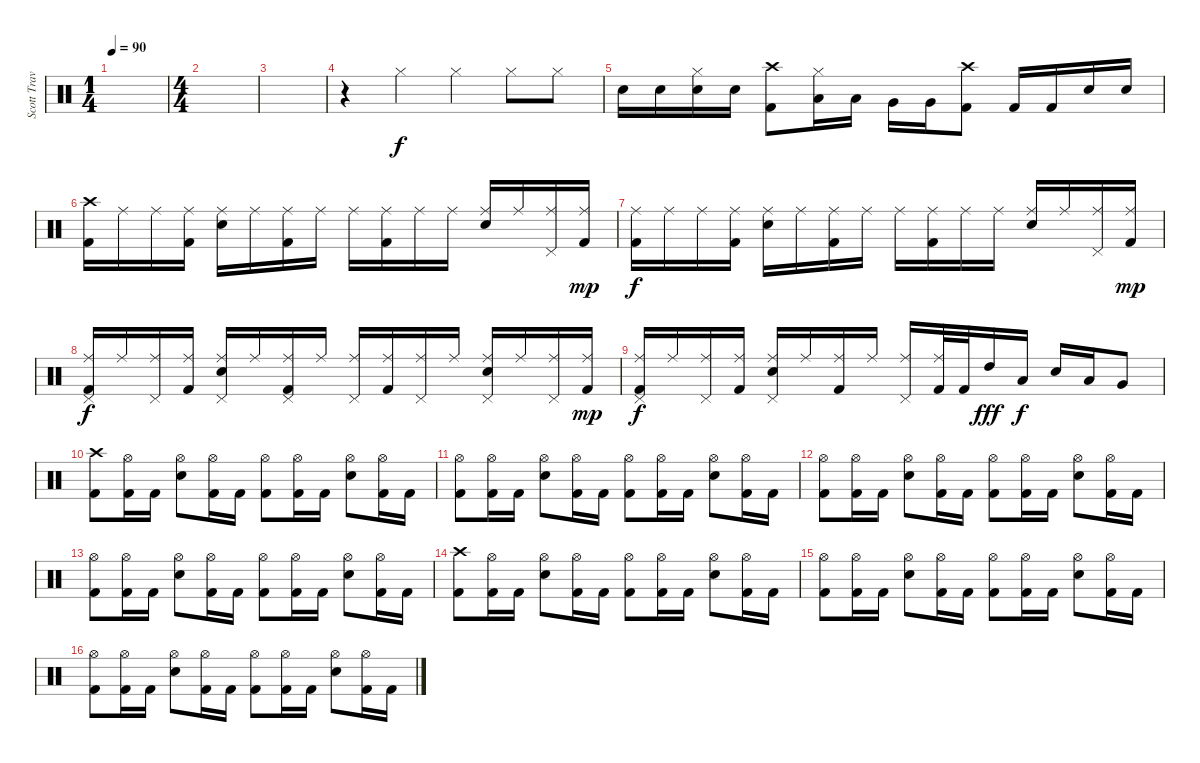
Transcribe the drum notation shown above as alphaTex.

\track ("Scott Travis" "Scott Trav") {instrument percussion}
\staff {score}
\articulation defaults
\ts (1 4)
\tempo 90
\clef neutral
\ks c
|
\ts (4 4)
|
|
r.4 "Hi-Hat (closed)".4 "Hi-Hat (closed)".4 "Hi-Hat (closed)".8 "Hi-Hat (closed)".8 |
"Electric Snare (hit)".16 "Electric Snare (hit)".16 ("Electric Snare (hit)" "Hi-Hat (closed)").16 "Electric Snare (hit)".16 ("Kick (hit) 2" "Crash high (hit)").8 ("Low Tom (hit)" "Hi-Hat (closed)").16 "Low Tom (hit)".16 "Very Low Tom (hit)".16 "Very Low Tom (hit)".16 ("Kick (hit) 2" "Crash high (hit)").8 "Kick (hit) 2".16 "Kick (hit) 2".16 "Electric Snare (hit)".16 "Electric Snare (hit)".16 |
("Kick (hit) 2" "Crash high (hit)").16 "Ride (middle)".16 "Ride (middle)".16 ("Ride (middle)" "Kick (hit) 2").16 ("Ride (middle)" "Electric Snare (hit)").16 "Ride (middle)".16 ("Ride (middle)" "Kick (hit) 2").16 "Ride (middle)".16 "Ride (middle)".16 ("Ride (middle)" "Kick (hit) 2").16 "Ride (middle)".16 "Ride (middle)".16 ("Ride (middle)" "Electric Snare (hit)").16 "Ride (middle)".16 ("Ride (middle)" "Pedal Hi-Hat (hit)").16 ("Ride (middle)" "Kick (hit) 2").16{dy mp} |
("Kick (hit) 2" "Ride (middle)").16{dy f} "Ride (middle)".16 "Ride (middle)".16 ("Ride (middle)" "Kick (hit) 2").16 ("Ride (middle)" "Electric Snare (hit)").16 "Ride (middle)".16 ("Ride (middle)" "Kick (hit) 2").16 "Ride (middle)".16 "Ride (middle)".16 ("Ride (middle)" "Kick (hit) 2").16 "Ride (middle)".16 "Ride (middle)".16 ("Ride (middle)" "Electric Snare (hit)").16 "Ride (middle)".16 ("Ride (middle)" "Pedal Hi-Hat (hit)").16 ("Ride (middle)" "Kick (hit) 2").16{dy mp} |
("Kick (hit) 2" "Ride (middle)" "Pedal Hi-Hat (hit)").16{dy f} "Ride (middle)".16 ("Ride (middle)" "Pedal Hi-Hat (hit)").16 ("Ride (middle)" "Kick (hit) 2").16 ("Ride (middle)" "Electric Snare (hit)" "Pedal Hi-Hat (hit)").16 "Ride (middle)".16 ("Ride (middle)" "Kick (hit) 2" "Pedal Hi-Hat (hit)").16 "Ride (middle)".16 ("Ride (middle)" "Pedal Hi-Hat (hit)").16 ("Ride (middle)" "Kick (hit) 2").16 ("Ride (middle)" "Pedal Hi-Hat (hit)").16 "Ride (middle)".16 ("Ride (middle)" "Electric Snare (hit)" "Pedal Hi-Hat (hit)").16 "Ride (middle)".16 ("Ride (middle)" "Pedal Hi-Hat (hit)").16 ("Ride (middle)" "Kick (hit) 2").16{dy mp} |
("Kick (hit) 2" "Ride (middle)" "Pedal Hi-Hat (hit)").16{dy f} "Ride (middle)".16 ("Ride (middle)" "Pedal Hi-Hat (hit)").16 ("Ride (middle)" "Kick (hit) 2").16 ("Ride (middle)" "Electric Snare (hit)" "Pedal Hi-Hat (hit)").16 "Ride (middle)".16 ("Ride (middle)" "Kick (hit) 2").16 "Ride (middle)".16 ("Ride (middle)" "Pedal Hi-Hat (hit)").16 ("Ride (middle)" "Kick (hit) 2").32 "Kick (hit) 2".32 "High Tom (hit)".16{dy fff} "Low Tom (hit)".16{dy f} "Electric Snare (hit)".16 "Low Tom (hit)".16 "Very Low Tom (hit)".8 |
("Kick (hit) 2" "Crash high (hit)").8 ("Kick (hit) 2" "Hi-Hat (open)").16 "Kick (hit) 2".16 ("Electric Snare (hit)" "Hi-Hat (open)").8 ("Kick (hit) 2" "Hi-Hat (open)").16 "Kick (hit) 2".16 ("Kick (hit) 2" "Hi-Hat (open)").8 ("Kick (hit) 2" "Hi-Hat (open)").16 "Kick (hit) 2".16 ("Electric Snare (hit)" "Hi-Hat (open)").8 ("Kick (hit) 2" "Hi-Hat (open)").16 "Kick (hit) 2".16 |
("Kick (hit) 2" "Hi-Hat (open)").8 ("Kick (hit) 2" "Hi-Hat (open)").16 "Kick (hit) 2".16 ("Electric Snare (hit)" "Hi-Hat (open)").8 ("Kick (hit) 2" "Hi-Hat (open)").16 "Kick (hit) 2".16 ("Kick (hit) 2" "Hi-Hat (open)").8 ("Kick (hit) 2" "Hi-Hat (open)").16 "Kick (hit) 2".16 ("Electric Snare (hit)" "Hi-Hat (open)").8 ("Kick (hit) 2" "Hi-Hat (open)").16 "Kick (hit) 2".16 |
("Kick (hit) 2" "Hi-Hat (open)").8 ("Kick (hit) 2" "Hi-Hat (open)").16 "Kick (hit) 2".16 ("Electric Snare (hit)" "Hi-Hat (open)").8 ("Kick (hit) 2" "Hi-Hat (open)").16 "Kick (hit) 2".16 ("Kick (hit) 2" "Hi-Hat (open)").8 ("Kick (hit) 2" "Hi-Hat (open)").16 "Kick (hit) 2".16 ("Electric Snare (hit)" "Hi-Hat (open)").8 ("Kick (hit) 2" "Hi-Hat (open)").16 "Kick (hit) 2".16 |
("Kick (hit) 2" "Hi-Hat (open)").8 ("Kick (hit) 2" "Hi-Hat (open)").16 "Kick (hit) 2".16 ("Electric Snare (hit)" "Hi-Hat (open)").8 ("Kick (hit) 2" "Hi-Hat (open)").16 "Kick (hit) 2".16 ("Kick (hit) 2" "Hi-Hat (open)").8 ("Kick (hit) 2" "Hi-Hat (open)").16 "Kick (hit) 2".16 ("Electric Snare (hit)" "Hi-Hat (open)").8 ("Kick (hit) 2" "Hi-Hat (open)").16 "Kick (hit) 2".16 |
("Kick (hit) 2" "Crash high (hit)").8 ("Kick (hit) 2" "Hi-Hat (open)").16 "Kick (hit) 2".16 ("Electric Snare (hit)" "Hi-Hat (open)").8 ("Kick (hit) 2" "Hi-Hat (open)").16 "Kick (hit) 2".16 ("Kick (hit) 2" "Hi-Hat (open)").8 ("Kick (hit) 2" "Hi-Hat (open)").16 "Kick (hit) 2".16 ("Electric Snare (hit)" "Hi-Hat (open)").8 ("Kick (hit) 2" "Hi-Hat (open)").16 "Kick (hit) 2".16 |
("Kick (hit) 2" "Hi-Hat (open)").8 ("Kick (hit) 2" "Hi-Hat (open)").16 "Kick (hit) 2".16 ("Electric Snare (hit)" "Hi-Hat (open)").8 ("Kick (hit) 2" "Hi-Hat (open)").16 "Kick (hit) 2".16 ("Kick (hit) 2" "Hi-Hat (open)").8 ("Kick (hit) 2" "Hi-Hat (open)").16 "Kick (hit) 2".16 ("Electric Snare (hit)" "Hi-Hat (open)").8 ("Kick (hit) 2" "Hi-Hat (open)").16 "Kick (hit) 2".16 |
("Kick (hit) 2" "Hi-Hat (open)").8 ("Kick (hit) 2" "Hi-Hat (open)").16 "Kick (hit) 2".16 ("Electric Snare (hit)" "Hi-Hat (open)").8 ("Kick (hit) 2" "Hi-Hat (open)").16 "Kick (hit) 2".16 ("Kick (hit) 2" "Hi-Hat (open)").8 ("Kick (hit) 2" "Hi-Hat (open)").16 "Kick (hit) 2".16 ("Electric Snare (hit)" "Hi-Hat (open)").8 ("Kick (hit) 2" "Hi-Hat (open)").16 "Kick (hit) 2".16
